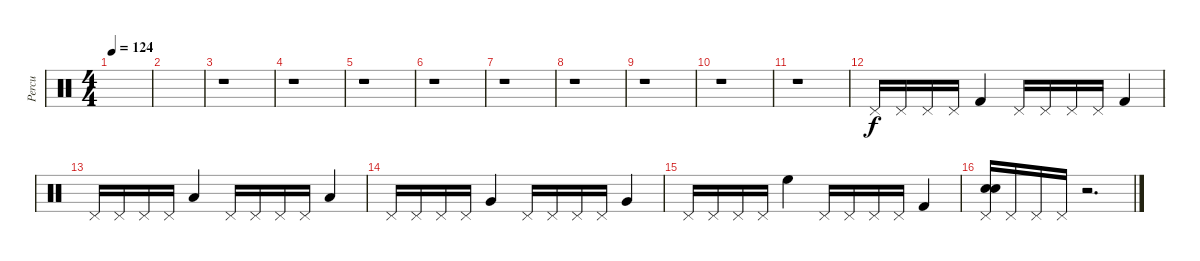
\track ("Percu" "Percu") {instrument percussion}
\staff {score}
\articulation defaults
\ts (4 4)
\tempo 124
\clef neutral
\ks c
|
|
r.1 |
r.1 |
r.1 |
r.1 |
r.1 |
r.1 |
r.1 |
r.1 |
r.1 |
"Pedal Hi-Hat (hit)".16 "Pedal Hi-Hat (hit)".16 "Pedal Hi-Hat (hit)".16 "Pedal Hi-Hat (hit)".16 "Kick (hit) 2".4 "Pedal Hi-Hat (hit)".16 "Pedal Hi-Hat (hit)".16 "Pedal Hi-Hat (hit)".16 "Pedal Hi-Hat (hit)".16 "Kick (hit) 2".4 |
"Pedal Hi-Hat (hit)".16 "Pedal Hi-Hat (hit)".16 "Pedal Hi-Hat (hit)".16 "Pedal Hi-Hat (hit)".16 "Low Floor Tom (hit)".4 "Pedal Hi-Hat (hit)".16 "Pedal Hi-Hat (hit)".16 "Pedal Hi-Hat (hit)".16 "Pedal Hi-Hat (hit)".16 "Low Floor Tom (hit)".4 |
"Pedal Hi-Hat (hit)".16 "Pedal Hi-Hat (hit)".16 "Pedal Hi-Hat (hit)".16 "Pedal Hi-Hat (hit)".16 "Very Low Tom (hit)".4 "Pedal Hi-Hat (hit)".16 "Pedal Hi-Hat (hit)".16 "Pedal Hi-Hat (hit)".16 "Pedal Hi-Hat (hit)".16 "Very Low Tom (hit)".4 |
"Pedal Hi-Hat (hit)".16 "Pedal Hi-Hat (hit)".16 "Pedal Hi-Hat (hit)".16 "Pedal Hi-Hat (hit)".16 "High Floor Tom (hit)".4 "Pedal Hi-Hat (hit)".16 "Pedal Hi-Hat (hit)".16 "Pedal Hi-Hat (hit)".16 "Pedal Hi-Hat (hit)".16 "Kick (hit) 2".4 |
("Pedal Hi-Hat (hit)" "Snare (hit) 2" "Snare (hit) 2").16 "Pedal Hi-Hat (hit)".16 "Pedal Hi-Hat (hit)".16 "Pedal Hi-Hat (hit)".16 r.2{d}
